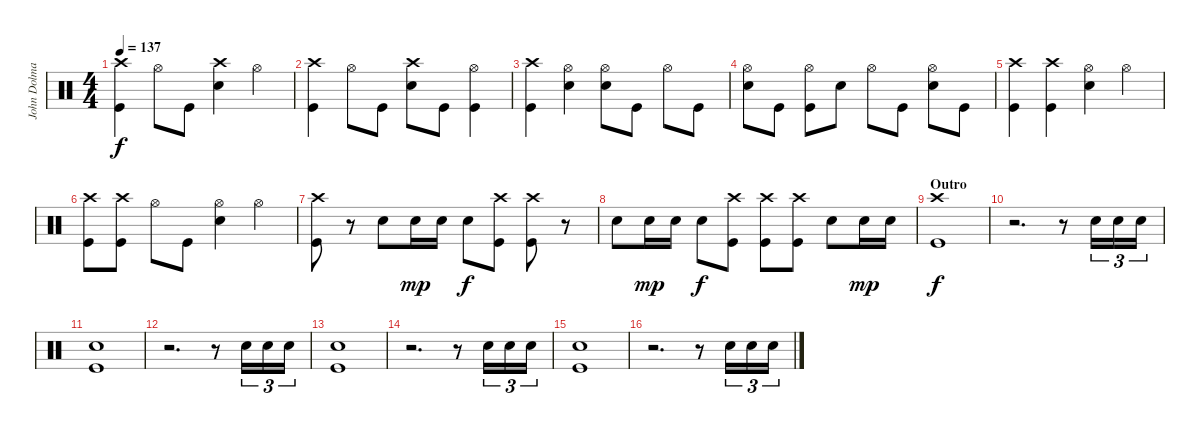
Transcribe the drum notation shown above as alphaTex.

\track ("John Dolmayan - Drums" "John Dolma") {instrument percussion}
\staff {score}
\articulation defaults
\ts (4 4)
\tempo 137
\clef neutral
\ks c
("Crash high (hit)" "Kick (hit)").4{dy f} "Hi-Hat (open)".8 "Kick (hit)".8 ("Crash high (hit)" "Snare (hit) 2").4 "Hi-Hat (open)".4 |
("Crash high (hit)" "Kick (hit)").4 "Hi-Hat (open)".8 "Kick (hit)".8 ("Crash high (hit)" "Snare (hit) 2").8 "Kick (hit)".8 ("Hi-Hat (open)" "Kick (hit)").4 |
("Crash high (hit)" "Kick (hit)").4 ("Hi-Hat (open)" "Snare (hit) 2").4 ("Hi-Hat (open)" "Snare (hit) 2").8 "Kick (hit)".8 "Hi-Hat (open)".8 "Kick (hit)".8 |
("Hi-Hat (open)" "Snare (hit) 2").8 "Kick (hit)".8 ("Hi-Hat (open)" "Kick (hit)").8 "Snare (hit) 2".8 "Hi-Hat (open)".8 "Kick (hit)".8 ("Hi-Hat (open)" "Snare (hit) 2").8 "Kick (hit)".8 |
("Crash high (hit)" "Kick (hit)").4 ("Crash high (hit)" "Kick (hit)").4 ("Hi-Hat (open)" "Snare (hit) 2").4 "Hi-Hat (open)".4 |
("Crash high (hit)" "Kick (hit)").8 ("Crash high (hit)" "Kick (hit)").8 "Hi-Hat (open)".8 "Kick (hit)".8 ("Hi-Hat (open)" "Snare (hit) 2").4 "Hi-Hat (open)".4 |
("Crash high (hit)" "Kick (hit)").8 r.8 "Snare (hit) 2".8 "Snare (hit) 2".16{dy mp} "Snare (hit) 2".16 "Snare (hit) 2".8{dy f} ("Crash high (hit)" "Kick (hit)").8 ("Crash high (hit)" "Kick (hit)").8 r.8 |
"Snare (hit) 2".8 "Snare (hit) 2".16{dy mp} "Snare (hit) 2".16 "Snare (hit) 2".8{dy f} ("Crash high (hit)" "Kick (hit)").8 ("Crash high (hit)" "Kick (hit)").8 ("Crash high (hit)" "Kick (hit)").8 "Snare (hit) 2".8 "Snare (hit) 2".16{dy mp} "Snare (hit) 2".16 |
\section ("" "Outro")
("Crash high (hit)" "Kick (hit)").1{dy f} |
r.2{d} r.8 "Snare (hit) 2".16{tu (3 2)} "Snare (hit) 2".16{tu (3 2)} "Snare (hit) 2".16{tu (3 2)} |
("Snare (hit) 2" "Kick (hit)").1 |
r.2{d} r.8 "Snare (hit) 2".16{tu (3 2)} "Snare (hit) 2".16{tu (3 2)} "Snare (hit) 2".16{tu (3 2)} |
("Snare (hit) 2" "Kick (hit)").1 |
r.2{d} r.8 "Snare (hit) 2".16{tu (3 2)} "Snare (hit) 2".16{tu (3 2)} "Snare (hit) 2".16{tu (3 2)} |
("Snare (hit) 2" "Kick (hit)").1 |
r.2{d} r.8 "Snare (hit) 2".16{tu (3 2)} "Snare (hit) 2".16{tu (3 2)} "Snare (hit) 2".16{tu (3 2)}
